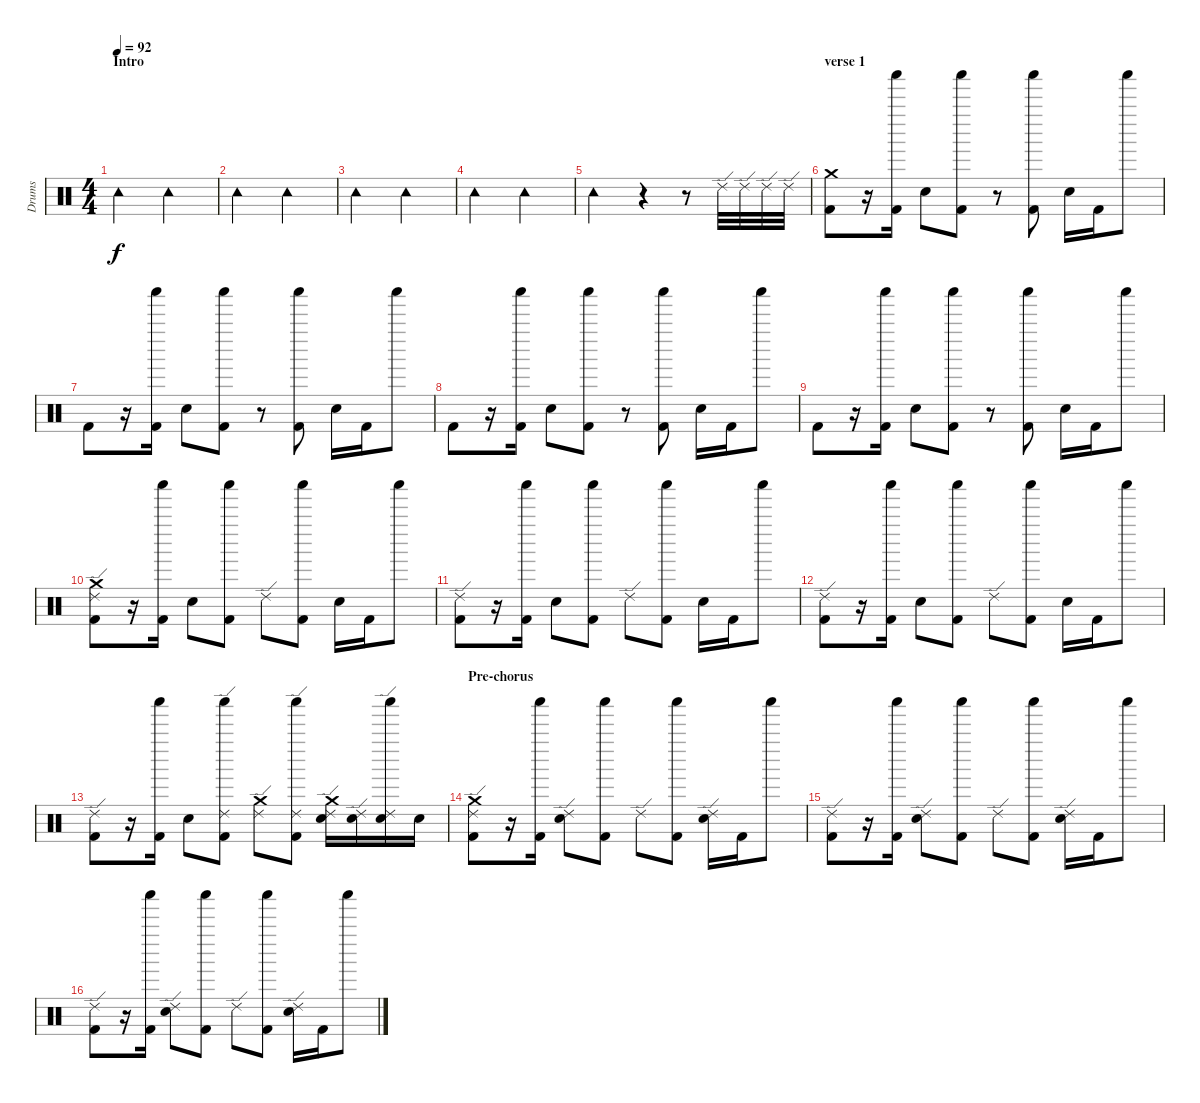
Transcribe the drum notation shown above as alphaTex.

\track ("Drums" "Drums") {instrument percussion}
\staff {score}
\articulation defaults
\ts (4 4)
\section ("" "Intro")
\tempo 92
\clef neutral
\ks c "Tambourine (hit)".2{dy f} "Tambourine (hit)".2
|
"Tambourine (hit)".2 "Tambourine (hit)".2 |
"Tambourine (hit)".2 "Tambourine (hit)".2 |
"Tambourine (hit)".2 "Tambourine (hit)".2 |
"Tambourine (hit)".2 r.4 r.8 "Ride (edge) 2".32 "Ride (edge) 2".32 "Ride (edge) 2".32 "Ride (edge) 2".32 |
\section ("" "verse 1")
("Crash medium (hit)" "Kick (hit) 2").8 r.16 ("Shaker (hit)" "Kick (hit) 2").16 "Electric Snare (hit)".8 ("Shaker (hit)" "Kick (hit) 2").8 r.8 ("Shaker (hit)" "Kick (hit) 2").8 "Electric Snare (hit)".16 "Kick (hit) 2".16 "Shaker (hit)".8 |
"Kick (hit) 2".8 r.16 ("Shaker (hit)" "Kick (hit) 2").16 "Electric Snare (hit)".8 ("Shaker (hit)" "Kick (hit) 2").8 r.8 ("Shaker (hit)" "Kick (hit) 2").8 "Electric Snare (hit)".16 "Kick (hit) 2".16 "Shaker (hit)".8 |
"Kick (hit) 2".8 r.16 ("Shaker (hit)" "Kick (hit) 2").16 "Electric Snare (hit)".8 ("Shaker (hit)" "Kick (hit) 2").8 r.8 ("Shaker (hit)" "Kick (hit) 2").8 "Electric Snare (hit)".16 "Kick (hit) 2".16 "Shaker (hit)".8 |
"Kick (hit) 2".8 r.16 ("Shaker (hit)" "Kick (hit) 2").16 "Electric Snare (hit)".8 ("Shaker (hit)" "Kick (hit) 2").8 r.8 ("Shaker (hit)" "Kick (hit) 2").8 "Electric Snare (hit)".16 "Kick (hit) 2".16 "Shaker (hit)".8 |
("Ride (edge) 2" "Crash medium (hit)" "Kick (hit) 2").8 r.16 ("Shaker (hit)" "Kick (hit) 2").16 "Electric Snare (hit)".8 ("Shaker (hit)" "Kick (hit) 2").8 "Ride (edge) 2".8 ("Shaker (hit)" "Kick (hit) 2").8 "Electric Snare (hit)".16 "Kick (hit) 2".16 "Shaker (hit)".8 |
("Ride (edge) 2" "Kick (hit) 2").8 r.16 ("Shaker (hit)" "Kick (hit) 2").16 "Electric Snare (hit)".8 ("Shaker (hit)" "Kick (hit) 2").8 "Ride (edge) 2".8 ("Shaker (hit)" "Kick (hit) 2").8 "Electric Snare (hit)".16 "Kick (hit) 2".16 "Shaker (hit)".8 |
("Ride (edge) 2" "Kick (hit) 2").8 r.16 ("Shaker (hit)" "Kick (hit) 2").16 "Electric Snare (hit)".8 ("Shaker (hit)" "Kick (hit) 2").8 "Ride (edge) 2".8 ("Shaker (hit)" "Kick (hit) 2").8 "Electric Snare (hit)".16 "Kick (hit) 2".16 "Shaker (hit)".8 |
("Ride (edge) 2" "Kick (hit) 2").8 r.16 ("Shaker (hit)" "Kick (hit) 2").16 "Electric Snare (hit)".8 ("Ride (edge) 2" "Shaker (hit)" "Kick (hit) 2").8 ("Ride (edge) 2" "Crash medium (hit)").8 ("Ride (edge) 2" "Shaker (hit)" "Kick (hit) 2").8 ("Ride (edge) 2" "Crash medium (hit)" "Electric Snare (hit)").16 ("Ride (edge) 2" "Electric Snare (hit)").16 ("Ride (edge) 2" "Shaker (hit)" "Electric Snare (hit)").16 "Electric Snare (hit)".16 |
\section ("" "Pre-chorus")
("Ride (edge) 2" "Crash medium (hit)" "Kick (hit) 2").8 r.16 ("Shaker (hit)" "Kick (hit) 2").16 ("Ride (edge) 2" "Electric Snare (hit)").8 ("Shaker (hit)" "Kick (hit) 2").8 "Ride (edge) 2".8 ("Shaker (hit)" "Kick (hit) 2").8 ("Ride (edge) 2" "Electric Snare (hit)").16 "Kick (hit) 2".16 "Shaker (hit)".8 |
("Ride (edge) 2" "Kick (hit) 2").8 r.16 ("Shaker (hit)" "Kick (hit) 2").16 ("Ride (edge) 2" "Electric Snare (hit)").8 ("Shaker (hit)" "Kick (hit) 2").8 "Ride (edge) 2".8 ("Shaker (hit)" "Kick (hit) 2").8 ("Ride (edge) 2" "Electric Snare (hit)").16 "Kick (hit) 2".16 "Shaker (hit)".8 |
("Ride (edge) 2" "Kick (hit) 2").8 r.16 ("Shaker (hit)" "Kick (hit) 2").16 ("Ride (edge) 2" "Electric Snare (hit)").8 ("Shaker (hit)" "Kick (hit) 2").8 "Ride (edge) 2".8 ("Shaker (hit)" "Kick (hit) 2").8 ("Ride (edge) 2" "Electric Snare (hit)").16 "Kick (hit) 2".16 "Shaker (hit)".8
